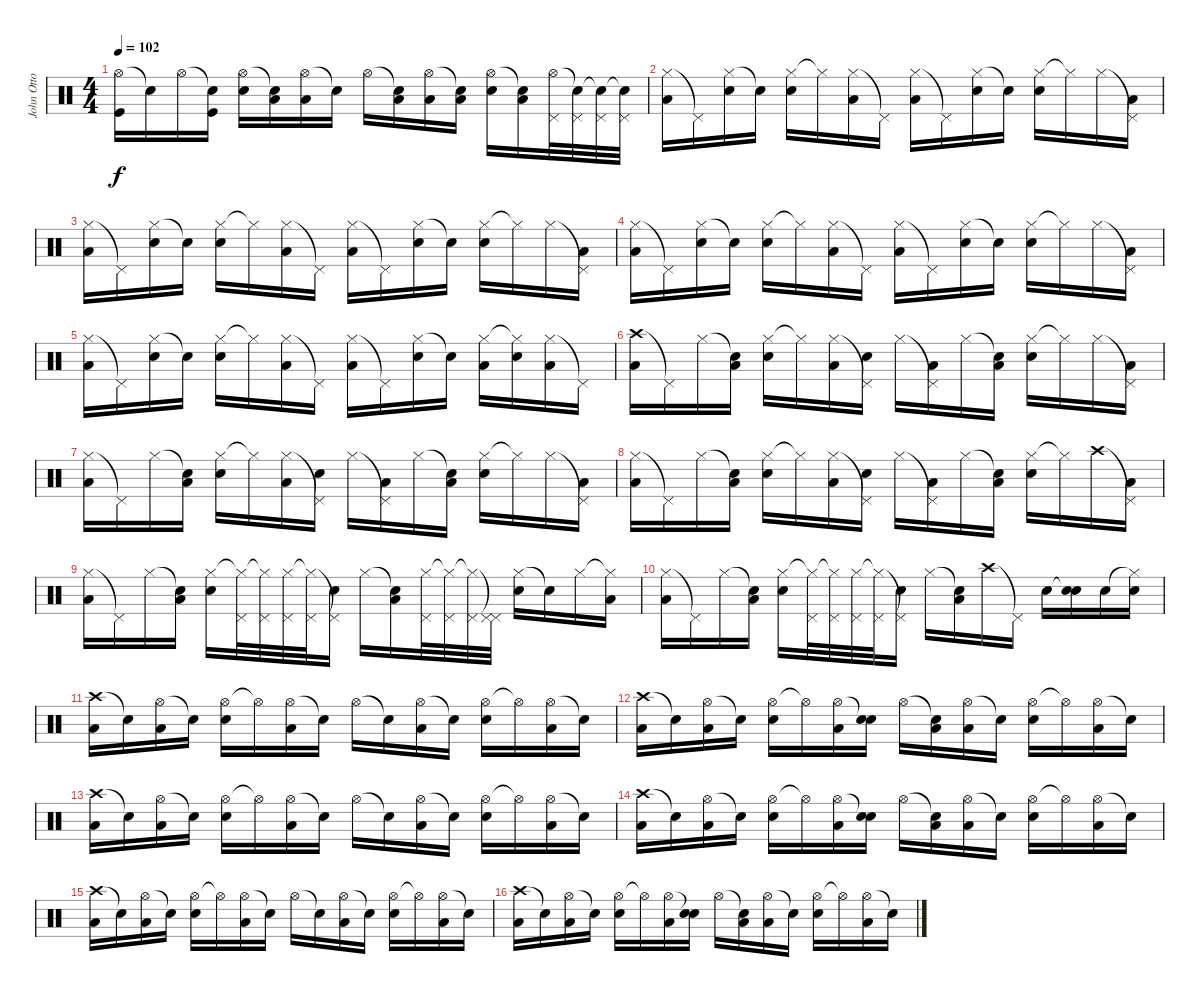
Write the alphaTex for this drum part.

\track ("John Otto (2nd Drums)" "John Otto ") {instrument percussion}
\staff {score}
\articulation defaults
\ts (4 4)
\tempo 102
\clef neutral
\ks c
("Hi-Hat (open)" "Kick (hit)").16{dy f} "Snare (hit)"{t}.16 "Hi-Hat (open)".16 ("Snare (hit)"{t} "Kick (hit)").16 ("Hi-Hat (open)" "Snare (hit) 2").16 ("Snare (hit)"{t} "Low Tom (hit)").16 ("Hi-Hat (open)" "Low Tom (hit)").16 "Snare (hit)"{t}.16 "Hi-Hat (open)".16 ("Snare (hit)"{t} "Low Tom (hit)").16 ("Hi-Hat (open)" "Low Tom (hit)").16 ("Snare (hit)"{t} "Low Tom (hit)").16 ("Hi-Hat (open)" "Snare (hit) 2").16 ("Snare (hit)"{t} "Low Tom (hit)").16 ("Hi-Hat (open)" "Pedal Hi-Hat (hit)").32 ("Snare (hit)"{t} "Pedal Hi-Hat (hit)").32 ("Snare (hit)"{t} "Pedal Hi-Hat (hit)").32 ("Snare (hit)"{t} "Pedal Hi-Hat (hit)").32 |
("Hi-Hat (closed)" "Low Tom (hit)").16 "Pedal Hi-Hat (hit)"{t}.16 ("Hi-Hat (closed)" "Snare (hit) 2").16 "Snare (hit)"{t}.16 ("Hi-Hat (closed)" "Snare (hit) 2").16 "Hi-Hat (closed)"{t}.16 ("Hi-Hat (closed)" "Low Tom (hit)").16 "Pedal Hi-Hat (hit)"{t}.16 ("Hi-Hat (closed)" "Low Tom (hit)").16 "Pedal Hi-Hat (hit)"{t}.16 ("Hi-Hat (closed)" "Snare (hit) 2").16 "Snare (hit)"{t}.16 ("Hi-Hat (closed)" "Snare (hit) 2").16 "Hi-Hat (closed)"{t}.16 "Hi-Hat (closed)".16 ("Pedal Hi-Hat (hit)"{t} "Low Tom (hit)").16 |
("Hi-Hat (closed)" "Low Tom (hit)").16 "Pedal Hi-Hat (hit)"{t}.16 ("Hi-Hat (closed)" "Snare (hit) 2").16 "Snare (hit)"{t}.16 ("Hi-Hat (closed)" "Snare (hit) 2").16 "Hi-Hat (closed)"{t}.16 ("Hi-Hat (closed)" "Low Tom (hit)").16 "Pedal Hi-Hat (hit)"{t}.16 ("Hi-Hat (closed)" "Low Tom (hit)").16 "Pedal Hi-Hat (hit)"{t}.16 ("Hi-Hat (closed)" "Snare (hit) 2").16 "Snare (hit)"{t}.16 ("Hi-Hat (closed)" "Snare (hit) 2").16 "Hi-Hat (closed)"{t}.16 "Hi-Hat (closed)".16 ("Pedal Hi-Hat (hit)"{t} "Low Tom (hit)").16 |
("Hi-Hat (closed)" "Low Tom (hit)").16 "Pedal Hi-Hat (hit)"{t}.16 ("Hi-Hat (closed)" "Snare (hit) 2").16 "Snare (hit)"{t}.16 ("Hi-Hat (closed)" "Snare (hit) 2").16 "Hi-Hat (closed)"{t}.16 ("Hi-Hat (closed)" "Low Tom (hit)").16 "Pedal Hi-Hat (hit)"{t}.16 ("Hi-Hat (closed)" "Low Tom (hit)").16 "Pedal Hi-Hat (hit)"{t}.16 ("Hi-Hat (closed)" "Snare (hit) 2").16 "Snare (hit)"{t}.16 ("Hi-Hat (closed)" "Snare (hit) 2").16 "Hi-Hat (closed)"{t}.16 "Hi-Hat (closed)".16 ("Pedal Hi-Hat (hit)"{t} "Low Tom (hit)").16 |
("Hi-Hat (closed)" "Low Tom (hit)").16 "Pedal Hi-Hat (hit)"{t}.16 ("Hi-Hat (closed)" "Snare (hit) 2").16 "Snare (hit)"{t}.16 ("Hi-Hat (closed)" "Snare (hit) 2").16 "Hi-Hat (closed)"{t}.16 ("Hi-Hat (closed)" "Low Tom (hit)").16 "Pedal Hi-Hat (hit)"{t}.16 ("Hi-Hat (closed)" "Low Tom (hit)").16 "Pedal Hi-Hat (hit)"{t}.16 ("Hi-Hat (closed)" "Snare (hit) 2").16 "Snare (hit)"{t}.16 ("Hi-Hat (closed)" "Low Tom (hit)").16 ("Hi-Hat (closed)"{t} "Snare (hit) 2").16 ("Hi-Hat (closed)" "Low Tom (hit)").16 "Pedal Hi-Hat (hit)"{t}.16 |
("Crash high (hit)" "Low Tom (hit)").16 "Pedal Hi-Hat (hit)"{t}.16 "Hi-Hat (closed)".16 ("Snare (hit)"{t} "Low Tom (hit)").16 ("Hi-Hat (closed)" "Snare (hit) 2").16 "Hi-Hat (closed)"{t}.16 ("Hi-Hat (closed)" "Low Tom (hit)").16 ("Pedal Hi-Hat (hit)"{t} "Snare (hit) 2").16 "Hi-Hat (closed)".16 ("Pedal Hi-Hat (hit)"{t} "Low Tom (hit)").16 "Hi-Hat (closed)".16 ("Snare (hit)"{t} "Low Tom (hit)").16 ("Hi-Hat (closed)" "Snare (hit) 2").16 "Hi-Hat (closed)"{t}.16 "Hi-Hat (closed)".16 ("Pedal Hi-Hat (hit)"{t} "Low Tom (hit)").16 |
("Hi-Hat (closed)" "Low Tom (hit)").16 "Pedal Hi-Hat (hit)"{t}.16 "Hi-Hat (closed)".16 ("Snare (hit)"{t} "Low Tom (hit)").16 ("Hi-Hat (closed)" "Snare (hit) 2").16 "Hi-Hat (closed)"{t}.16 ("Hi-Hat (closed)" "Low Tom (hit)").16 ("Pedal Hi-Hat (hit)"{t} "Snare (hit) 2").16 "Hi-Hat (closed)".16 ("Pedal Hi-Hat (hit)"{t} "Low Tom (hit)").16 "Hi-Hat (closed)".16 ("Snare (hit)"{t} "Low Tom (hit)").16 ("Hi-Hat (closed)" "Snare (hit) 2").16 "Hi-Hat (closed)"{t}.16 "Hi-Hat (closed)".16 ("Pedal Hi-Hat (hit)"{t} "Low Tom (hit)").16 |
("Hi-Hat (closed)" "Low Tom (hit)").16 "Pedal Hi-Hat (hit)"{t}.16 "Hi-Hat (closed)".16 ("Snare (hit)"{t} "Low Tom (hit)").16 ("Hi-Hat (closed)" "Snare (hit) 2").16 "Hi-Hat (closed)"{t}.16 ("Hi-Hat (closed)" "Low Tom (hit)").16 ("Pedal Hi-Hat (hit)"{t} "Snare (hit) 2").16 "Hi-Hat (closed)".16 ("Pedal Hi-Hat (hit)"{t} "Low Tom (hit)").16 "Hi-Hat (closed)".16 ("Snare (hit)"{t} "Low Tom (hit)").16 ("Hi-Hat (closed)" "Snare (hit) 2").16 "Hi-Hat (closed)"{t}.16 "Crash high (hit)".16 ("Pedal Hi-Hat (hit)"{t} "Low Tom (hit)").16 |
("Hi-Hat (closed)" "Low Tom (hit)").16 "Pedal Hi-Hat (hit)"{t}.16 "Hi-Hat (closed)".16 ("Snare (hit)"{t} "Low Tom (hit)").16 ("Hi-Hat (closed)" "Snare (hit) 2").16 ("Hi-Hat (closed)"{t} "Pedal Hi-Hat (hit)").32 ("Hi-Hat (closed)"{t} "Pedal Hi-Hat (hit)").32 ("Hi-Hat (closed)" "Pedal Hi-Hat (hit)").32 ("Hi-Hat (closed)"{t} "Pedal Hi-Hat (hit)").32 ("Pedal Hi-Hat (hit)"{t} "Snare (hit) 2").16 "Hi-Hat (closed)".16 ("Snare (hit)"{t} "Low Tom (hit)").16 ("Hi-Hat (closed)" "Pedal Hi-Hat (hit)").32 ("Hi-Hat (closed)"{t} "Pedal Hi-Hat (hit)").32 ("Hi-Hat (closed)"{t} "Pedal Hi-Hat (hit)").32 ("Pedal Hi-Hat (hit)"{t} "Pedal Hi-Hat (hit)").32 ("Hi-Hat (closed)" "Snare (hit) 2").16 "Snare (hit)"{t}.16 "Hi-Hat (closed)".16 ("Hi-Hat (closed)"{t} "Low Tom (hit)").16 |
("Hi-Hat (closed)" "Low Tom (hit)").16 "Pedal Hi-Hat (hit)"{t}.16 "Hi-Hat (closed)".16 ("Snare (hit)"{t} "Low Tom (hit)").16 ("Hi-Hat (closed)" "Snare (hit) 2").16 ("Hi-Hat (closed)"{t} "Pedal Hi-Hat (hit)").32 ("Hi-Hat (closed)"{t} "Pedal Hi-Hat (hit)").32 ("Hi-Hat (closed)" "Pedal Hi-Hat (hit)").32 ("Hi-Hat (closed)"{t} "Pedal Hi-Hat (hit)").32 ("Pedal Hi-Hat (hit)"{t} "Snare (hit) 2").16 "Hi-Hat (closed)".16 ("Snare (hit)"{t} "Low Tom (hit)").16 "Crash high (hit)".16 "Pedal Hi-Hat (hit)"{t}.16 "Snare (hit) 2".16 ("Snare (hit)"{t} "Snare (hit) 2").16 "Snare (hit) 2".16 ("Hi-Hat (closed)"{t} "Snare (hit) 2").16 |
("Crash high (hit)" "Low Tom (hit)").16 "Snare (hit)"{t}.16 ("Hi-Hat (open)" "Low Tom (hit)").16 "Snare (hit)"{t}.16 ("Hi-Hat (open)" "Snare (hit) 2").16 "Hi-Hat (open)"{t}.16 ("Hi-Hat (open)" "Low Tom (hit)").16 "Snare (hit)"{t}.16 "Hi-Hat (open)".16 "Snare (hit)"{t}.16 ("Hi-Hat (open)" "Low Tom (hit)").16 "Snare (hit)"{t}.16 ("Hi-Hat (open)" "Snare (hit) 2").16 "Hi-Hat (open)"{t}.16 ("Hi-Hat (open)" "Low Tom (hit)").16 "Snare (hit)"{t}.16 |
("Crash high (hit)" "Low Tom (hit)").16 "Snare (hit)"{t}.16 ("Hi-Hat (open)" "Low Tom (hit)").16 "Snare (hit)"{t}.16 ("Hi-Hat (open)" "Snare (hit) 2").16 "Hi-Hat (open)"{t}.16 ("Hi-Hat (open)" "Low Tom (hit)").16 ("Snare (hit)"{t} "Snare (hit) 2").16 "Hi-Hat (open)".16 ("Snare (hit)"{t} "Low Tom (hit)").16 ("Hi-Hat (open)" "Low Tom (hit)").16 "Snare (hit)"{t}.16 ("Hi-Hat (open)" "Snare (hit) 2").16 "Hi-Hat (open)"{t}.16 ("Hi-Hat (open)" "Low Tom (hit)").16 "Snare (hit)"{t}.16 |
("Crash high (hit)" "Low Tom (hit)").16 "Snare (hit)"{t}.16 ("Hi-Hat (open)" "Low Tom (hit)").16 "Snare (hit)"{t}.16 ("Hi-Hat (open)" "Snare (hit) 2").16 "Hi-Hat (open)"{t}.16 ("Hi-Hat (open)" "Low Tom (hit)").16 "Snare (hit)"{t}.16 "Hi-Hat (open)".16 "Snare (hit)"{t}.16 ("Hi-Hat (open)" "Low Tom (hit)").16 "Snare (hit)"{t}.16 ("Hi-Hat (open)" "Snare (hit) 2").16 "Hi-Hat (open)"{t}.16 ("Hi-Hat (open)" "Low Tom (hit)").16 "Snare (hit)"{t}.16 |
("Crash high (hit)" "Low Tom (hit)").16 "Snare (hit)"{t}.16 ("Hi-Hat (open)" "Low Tom (hit)").16 "Snare (hit)"{t}.16 ("Hi-Hat (open)" "Snare (hit) 2").16 "Hi-Hat (open)"{t}.16 ("Hi-Hat (open)" "Low Tom (hit)").16 ("Snare (hit)"{t} "Snare (hit) 2").16 "Hi-Hat (open)".16 ("Snare (hit)"{t} "Low Tom (hit)").16 ("Hi-Hat (open)" "Low Tom (hit)").16 "Snare (hit)"{t}.16 ("Hi-Hat (open)" "Snare (hit) 2").16 "Hi-Hat (open)"{t}.16 ("Hi-Hat (open)" "Low Tom (hit)").16 "Snare (hit)"{t}.16 |
("Crash high (hit)" "Low Tom (hit)").16 "Snare (hit)"{t}.16 ("Hi-Hat (open)" "Low Tom (hit)").16 "Snare (hit)"{t}.16 ("Hi-Hat (open)" "Snare (hit) 2").16 "Hi-Hat (open)"{t}.16 ("Hi-Hat (open)" "Low Tom (hit)").16 "Snare (hit)"{t}.16 "Hi-Hat (open)".16 "Snare (hit)"{t}.16 ("Hi-Hat (open)" "Low Tom (hit)").16 "Snare (hit)"{t}.16 ("Hi-Hat (open)" "Snare (hit) 2").16 "Hi-Hat (open)"{t}.16 ("Hi-Hat (open)" "Low Tom (hit)").16 "Snare (hit)"{t}.16 |
("Crash high (hit)" "Low Tom (hit)").16 "Snare (hit)"{t}.16 ("Hi-Hat (open)" "Low Tom (hit)").16 "Snare (hit)"{t}.16 ("Hi-Hat (open)" "Snare (hit) 2").16 "Hi-Hat (open)"{t}.16 ("Hi-Hat (open)" "Low Tom (hit)").16 ("Snare (hit)"{t} "Snare (hit) 2").16 "Hi-Hat (open)".16 ("Snare (hit)"{t} "Low Tom (hit)").16 ("Hi-Hat (open)" "Low Tom (hit)").16 "Snare (hit)"{t}.16 ("Hi-Hat (open)" "Snare (hit) 2").16 "Hi-Hat (open)"{t}.16 ("Hi-Hat (open)" "Low Tom (hit)").16 "Snare (hit)"{t}.16
